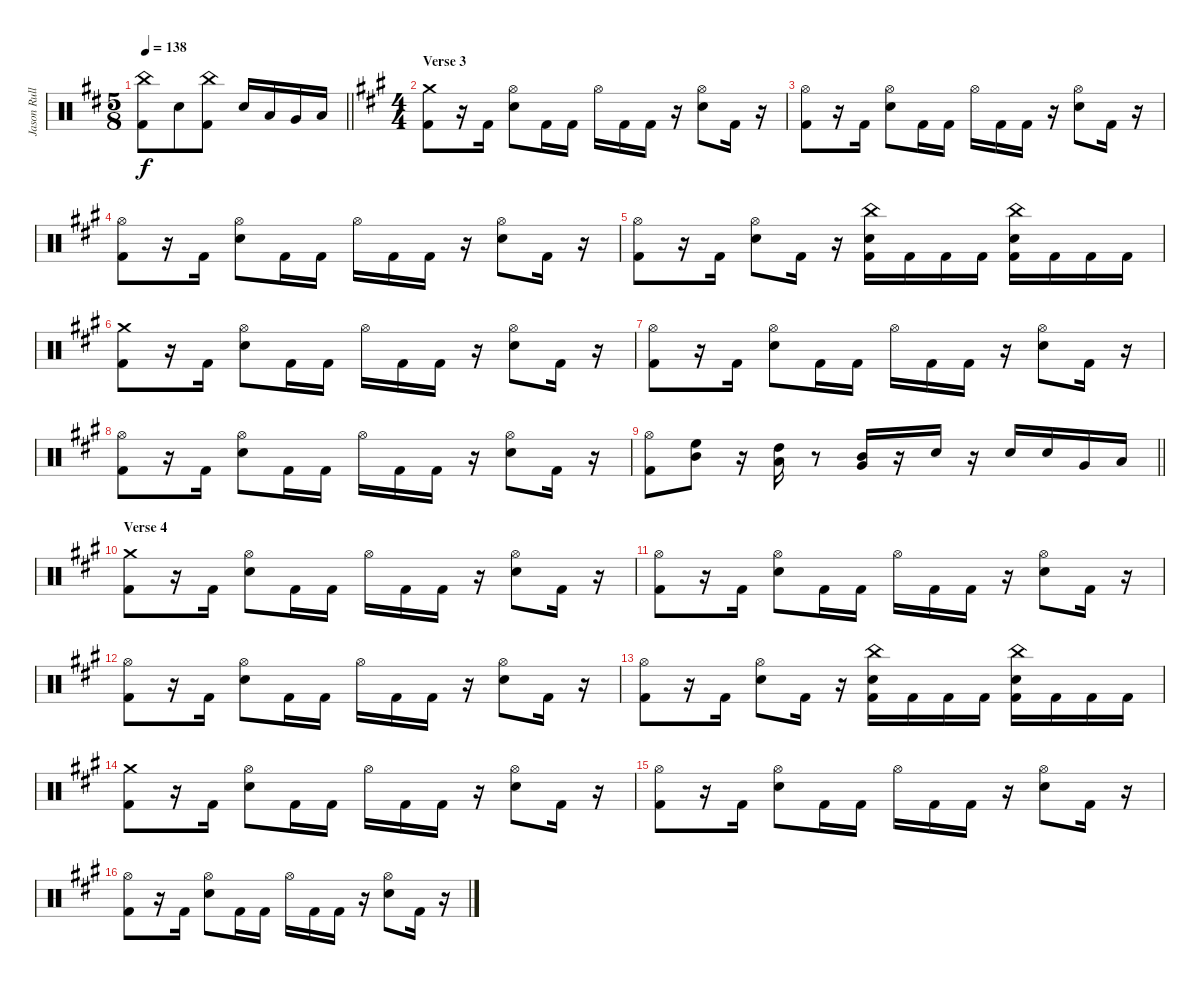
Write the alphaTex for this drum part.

\track ("Jason Rullo (drums)" "Jason Rull") {instrument percussion}
\staff {score}
\articulation defaults
\ts (5 8)
\tempo 138
\clef neutral
\barLineRight lightlight
\ks bminor
("China (hit)" "Kick (hit) 2").8{dy f} "Electric Snare (hit)".8 ("China (hit)" "Kick (hit) 2").8 "Electric Snare (hit)".16 "Low Tom (hit)".16 "Very Low Tom (hit)".16 "Low Floor Tom (hit)".16 |
\ts (4 4)
\section ("" "Verse 3")
\ks f#minor
("Crash medium (hit)" "Kick (hit) 2").8 r.16 "Kick (hit) 2".16 ("Hi-Hat (open)" "Electric Snare (hit)").8 "Kick (hit) 2".16 "Kick (hit) 2".16 "Hi-Hat (open)".16 "Kick (hit) 2".16 "Kick (hit) 2".16 r.16 ("Hi-Hat (open)" "Electric Snare (hit)").8 "Kick (hit) 2".16 r.16 |
("Hi-Hat (open)" "Kick (hit) 2").8 r.16 "Kick (hit) 2".16 ("Hi-Hat (open)" "Electric Snare (hit)").8 "Kick (hit) 2".16 "Kick (hit) 2".16 "Hi-Hat (open)".16 "Kick (hit) 2".16 "Kick (hit) 2".16 r.16 ("Hi-Hat (open)" "Electric Snare (hit)").8 "Kick (hit) 2".16 r.16 |
("Hi-Hat (open)" "Kick (hit) 2").8 r.16 "Kick (hit) 2".16 ("Hi-Hat (open)" "Electric Snare (hit)").8 "Kick (hit) 2".16 "Kick (hit) 2".16 "Hi-Hat (open)".16 "Kick (hit) 2".16 "Kick (hit) 2".16 r.16 ("Hi-Hat (open)" "Electric Snare (hit)").8 "Kick (hit) 2".16 r.16 |
("Hi-Hat (open)" "Kick (hit) 2").8 r.16 "Kick (hit) 2".16 ("Hi-Hat (open)" "Electric Snare (hit)").8 "Kick (hit) 2".16 r.16 ("China (hit)" "Electric Snare (hit)" "Kick (hit) 2").16 "Kick (hit) 2".16 "Kick (hit) 2".16 "Kick (hit) 2".16 ("Kick (hit) 2" "China (hit)" "Electric Snare (hit)").16 "Kick (hit) 2".16 "Kick (hit) 2".16 "Kick (hit) 2".16 |
("Crash medium (hit)" "Kick (hit) 2").8 r.16 "Kick (hit) 2".16 ("Hi-Hat (open)" "Electric Snare (hit)").8 "Kick (hit) 2".16 "Kick (hit) 2".16 "Hi-Hat (open)".16 "Kick (hit) 2".16 "Kick (hit) 2".16 r.16 ("Hi-Hat (open)" "Electric Snare (hit)").8 "Kick (hit) 2".16 r.16 |
("Hi-Hat (open)" "Kick (hit) 2").8 r.16 "Kick (hit) 2".16 ("Hi-Hat (open)" "Electric Snare (hit)").8 "Kick (hit) 2".16 "Kick (hit) 2".16 "Hi-Hat (open)".16 "Kick (hit) 2".16 "Kick (hit) 2".16 r.16 ("Hi-Hat (open)" "Electric Snare (hit)").8 "Kick (hit) 2".16 r.16 |
("Hi-Hat (open)" "Kick (hit) 2").8 r.16 "Kick (hit) 2".16 ("Hi-Hat (open)" "Electric Snare (hit)").8 "Kick (hit) 2".16 "Kick (hit) 2".16 "Hi-Hat (open)".16 "Kick (hit) 2".16 "Kick (hit) 2".16 r.16 ("Hi-Hat (open)" "Electric Snare (hit)").8 "Kick (hit) 2".16 r.16 |
\barLineRight lightlight
("Hi-Hat (open)" "Kick (hit) 2").8 ("High Floor Tom (hit)" "Mid Tom (hit)").8 r.16 ("High Tom (hit)" "Low Tom (hit)").16 r.8 ("Mid Tom (hit)" "Very Low Tom (hit)").16 r.16 "Electric Snare (hit)".16 r.16 "Electric Snare (hit)".16 "Electric Snare (hit)".16 "Very Low Tom (hit)".16 "Low Floor Tom (hit)".16 |
\section ("" "Verse 4")
("Crash medium (hit)" "Kick (hit) 2").8 r.16 "Kick (hit) 2".16 ("Hi-Hat (open)" "Electric Snare (hit)").8 "Kick (hit) 2".16 "Kick (hit) 2".16 "Hi-Hat (open)".16 "Kick (hit) 2".16 "Kick (hit) 2".16 r.16 ("Hi-Hat (open)" "Electric Snare (hit)").8 "Kick (hit) 2".16 r.16 |
("Hi-Hat (open)" "Kick (hit) 2").8 r.16 "Kick (hit) 2".16 ("Hi-Hat (open)" "Electric Snare (hit)").8 "Kick (hit) 2".16 "Kick (hit) 2".16 "Hi-Hat (open)".16 "Kick (hit) 2".16 "Kick (hit) 2".16 r.16 ("Hi-Hat (open)" "Electric Snare (hit)").8 "Kick (hit) 2".16 r.16 |
("Hi-Hat (open)" "Kick (hit) 2").8 r.16 "Kick (hit) 2".16 ("Hi-Hat (open)" "Electric Snare (hit)").8 "Kick (hit) 2".16 "Kick (hit) 2".16 "Hi-Hat (open)".16 "Kick (hit) 2".16 "Kick (hit) 2".16 r.16 ("Hi-Hat (open)" "Electric Snare (hit)").8 "Kick (hit) 2".16 r.16 |
("Hi-Hat (open)" "Kick (hit) 2").8 r.16 "Kick (hit) 2".16 ("Hi-Hat (open)" "Electric Snare (hit)").8 "Kick (hit) 2".16 r.16 ("China (hit)" "Electric Snare (hit)" "Kick (hit) 2").16 "Kick (hit) 2".16 "Kick (hit) 2".16 "Kick (hit) 2".16 ("China (hit)" "Kick (hit) 2" "Electric Snare (hit)").16 "Kick (hit) 2".16 "Kick (hit) 2".16 "Kick (hit) 2".16 |
("Crash medium (hit)" "Kick (hit) 2").8 r.16 "Kick (hit) 2".16 ("Hi-Hat (open)" "Electric Snare (hit)").8 "Kick (hit) 2".16 "Kick (hit) 2".16 "Hi-Hat (open)".16 "Kick (hit) 2".16 "Kick (hit) 2".16 r.16 ("Hi-Hat (open)" "Electric Snare (hit)").8 "Kick (hit) 2".16 r.16 |
("Hi-Hat (open)" "Kick (hit) 2").8 r.16 "Kick (hit) 2".16 ("Hi-Hat (open)" "Electric Snare (hit)").8 "Kick (hit) 2".16 "Kick (hit) 2".16 "Hi-Hat (open)".16 "Kick (hit) 2".16 "Kick (hit) 2".16 r.16 ("Hi-Hat (open)" "Electric Snare (hit)").8 "Kick (hit) 2".16 r.16 |
("Hi-Hat (open)" "Kick (hit) 2").8 r.16 "Kick (hit) 2".16 ("Hi-Hat (open)" "Electric Snare (hit)").8 "Kick (hit) 2".16 "Kick (hit) 2".16 "Hi-Hat (open)".16 "Kick (hit) 2".16 "Kick (hit) 2".16 r.16 ("Hi-Hat (open)" "Electric Snare (hit)").8 "Kick (hit) 2".16 r.16
